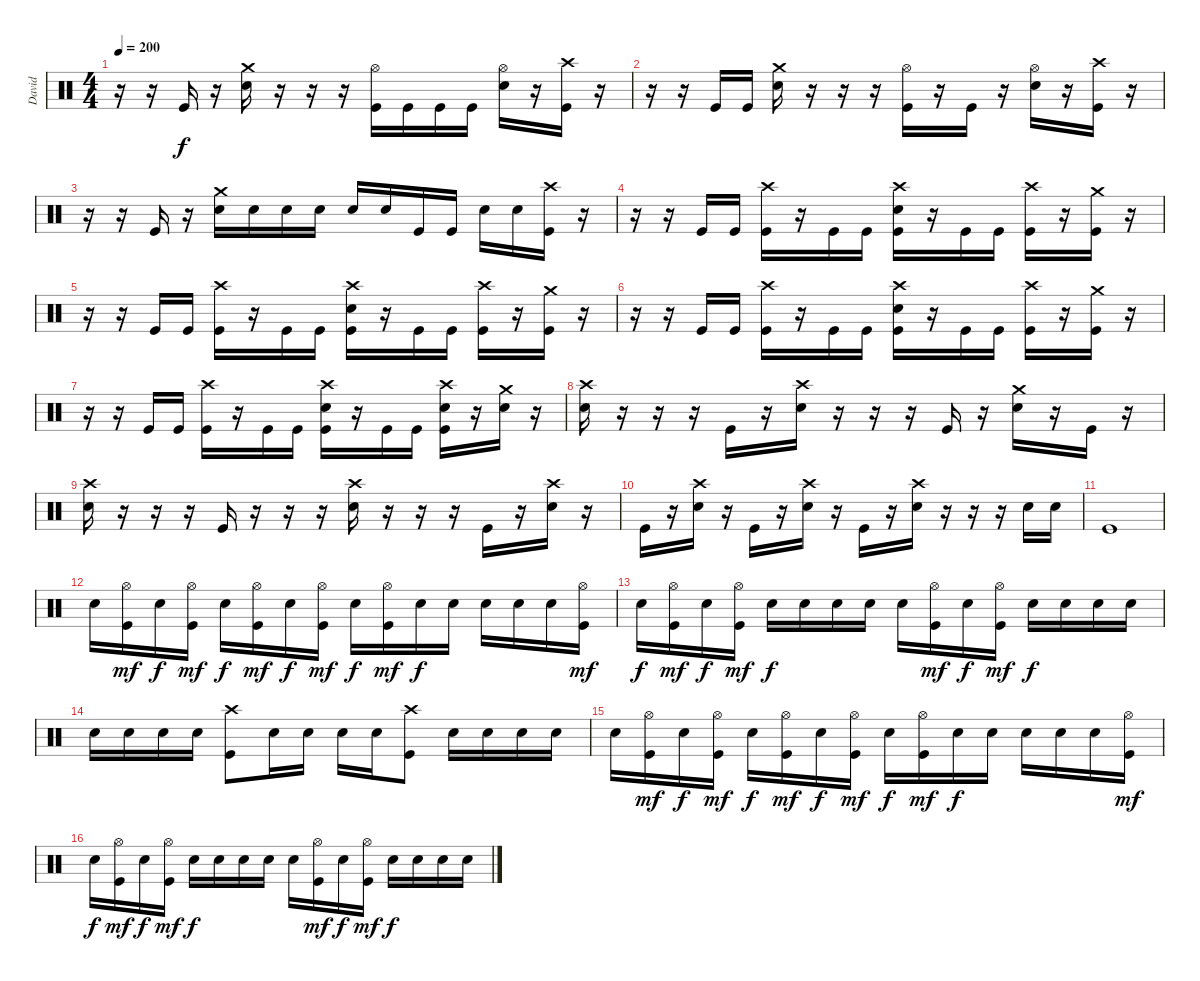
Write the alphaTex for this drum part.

\track ("David" "David") {instrument percussion}
\staff {score}
\articulation defaults
\ts (4 4)
\tempo 200
\clef neutral
\ks c
r.16{dy f} r.16 "Kick (hit)".16 r.16 ("Crash medium (hit)" "Electric Snare (hit)").16 r.16 r.16 r.16 ("Hi-Hat (open)" "Kick (hit)").16 "Kick (hit)".16 "Kick (hit)".16 "Kick (hit)".16 ("Hi-Hat (open)" "Electric Snare (hit)").16 r.16 ("Crash high (hit)" "Kick (hit)").16 r.16 |
r.16 r.16 "Kick (hit)".16 "Kick (hit)".16 ("Crash medium (hit)" "Electric Snare (hit)").16 r.16 r.16 r.16 ("Hi-Hat (open)" "Kick (hit)").16 r.16 "Kick (hit)".16 r.16 ("Hi-Hat (open)" "Electric Snare (hit)").16 r.16 ("Crash high (hit)" "Kick (hit)").16 r.16 |
r.16 r.16 "Kick (hit)".16 r.16 ("Crash medium (hit)" "Electric Snare (hit)").16 "Electric Snare (hit)".16 "Electric Snare (hit)".16 "Electric Snare (hit)".16 "Electric Snare (hit)".16 "Electric Snare (hit)".16 "Kick (hit)".16 "Kick (hit)".16 "Electric Snare (hit)".16 "Electric Snare (hit)".16 ("Crash high (hit)" "Kick (hit)").16 r.16 |
r.16 r.16 "Kick (hit)".16 "Kick (hit)".16 ("Crash high (hit)" "Kick (hit)").16 r.16 "Kick (hit)".16 "Kick (hit)".16 ("Crash high (hit)" "Electric Snare (hit)" "Kick (hit)").16 r.16 "Kick (hit)".16 "Kick (hit)".16 ("Crash high (hit)" "Kick (hit)").16 r.16 ("Crash medium (hit)" "Kick (hit)").16 r.16 |
r.16 r.16 "Kick (hit)".16 "Kick (hit)".16 ("Crash high (hit)" "Kick (hit)").16 r.16 "Kick (hit)".16 "Kick (hit)".16 ("Crash high (hit)" "Electric Snare (hit)" "Kick (hit)").16 r.16 "Kick (hit)".16 "Kick (hit)".16 ("Crash high (hit)" "Kick (hit)").16 r.16 ("Crash medium (hit)" "Kick (hit)").16 r.16 |
r.16 r.16 "Kick (hit)".16 "Kick (hit)".16 ("Crash high (hit)" "Kick (hit)").16 r.16 "Kick (hit)".16 "Kick (hit)".16 ("Crash high (hit)" "Electric Snare (hit)" "Kick (hit)").16 r.16 "Kick (hit)".16 "Kick (hit)".16 ("Crash high (hit)" "Kick (hit)").16 r.16 ("Crash medium (hit)" "Kick (hit)").16 r.16 |
r.16 r.16 "Kick (hit)".16 "Kick (hit)".16 ("Crash high (hit)" "Kick (hit)").16 r.16 "Kick (hit)".16 "Kick (hit)".16 ("Crash high (hit)" "Electric Snare (hit)" "Kick (hit)").16 r.16 "Kick (hit)".16 "Kick (hit)".16 ("Crash high (hit)" "Electric Snare (hit)" "Kick (hit)").16 r.16 ("Crash medium (hit)" "Electric Snare (hit)").16 r.16 |
("Crash high (hit)" "Electric Snare (hit)").16 r.16 r.16 r.16 "Kick (hit)".16 r.16 ("Crash high (hit)" "Electric Snare (hit)").16 r.16 r.16 r.16 "Kick (hit)".16 r.16 ("Crash medium (hit)" "Electric Snare (hit)").16 r.16 "Kick (hit)".16 r.16 |
("Crash high (hit)" "Electric Snare (hit)").16 r.16 r.16 r.16 "Kick (hit)".16 r.16 r.16 r.16 ("Crash high (hit)" "Electric Snare (hit)").16 r.16 r.16 r.16 "Kick (hit)".16 r.16 ("Crash high (hit)" "Electric Snare (hit)").16 r.16 |
"Kick (hit)".16 r.16 ("Crash high (hit)" "Electric Snare (hit)").16 r.16 "Kick (hit)".16 r.16 ("Crash high (hit)" "Electric Snare (hit)").16 r.16 "Kick (hit)".16 r.16 ("Crash high (hit)" "Electric Snare (hit)").16 r.16 r.16 r.16 "Electric Snare (hit)".16 "Electric Snare (hit)".16 |
"Kick (hit)".1 |
"Electric Snare (hit)".16 ("Hi-Hat (open)" "Kick (hit)").16{dy mf} "Electric Snare (hit)".16{dy f} ("Hi-Hat (open)" "Kick (hit)").16{dy mf} "Electric Snare (hit)".16{dy f} ("Hi-Hat (open)" "Kick (hit)").16{dy mf} "Electric Snare (hit)".16{dy f} ("Hi-Hat (open)" "Kick (hit)").16{dy mf} "Electric Snare (hit)".16{dy f} ("Hi-Hat (open)" "Kick (hit)").16{dy mf} "Electric Snare (hit)".16{dy f} "Electric Snare (hit)".16 "Electric Snare (hit)".16 "Electric Snare (hit)".16 "Electric Snare (hit)".16 ("Hi-Hat (open)" "Kick (hit)").16{dy mf} |
"Electric Snare (hit)".16{dy f} ("Hi-Hat (open)" "Kick (hit)").16{dy mf} "Electric Snare (hit)".16{dy f} ("Hi-Hat (open)" "Kick (hit)").16{dy mf} "Electric Snare (hit)".16{dy f} "Electric Snare (hit)".16 "Electric Snare (hit)".16 "Electric Snare (hit)".16 "Electric Snare (hit)".16 ("Hi-Hat (open)" "Kick (hit)").16{dy mf} "Electric Snare (hit)".16{dy f} ("Hi-Hat (open)" "Kick (hit)").16{dy mf} "Electric Snare (hit)".16{dy f} "Electric Snare (hit)".16 "Electric Snare (hit)".16 "Electric Snare (hit)".16 |
"Electric Snare (hit)".16 "Electric Snare (hit)".16 "Electric Snare (hit)".16 "Electric Snare (hit)".16 ("Crash high (hit)" "Kick (hit)").8 "Electric Snare (hit)".16 "Electric Snare (hit)".16 "Electric Snare (hit)".16 "Electric Snare (hit)".16 ("Crash high (hit)" "Kick (hit)").8 "Electric Snare (hit)".16 "Electric Snare (hit)".16 "Electric Snare (hit)".16 "Electric Snare (hit)".16 |
"Electric Snare (hit)".16 ("Hi-Hat (open)" "Kick (hit)").16{dy mf} "Electric Snare (hit)".16{dy f} ("Hi-Hat (open)" "Kick (hit)").16{dy mf} "Electric Snare (hit)".16{dy f} ("Hi-Hat (open)" "Kick (hit)").16{dy mf} "Electric Snare (hit)".16{dy f} ("Hi-Hat (open)" "Kick (hit)").16{dy mf} "Electric Snare (hit)".16{dy f} ("Hi-Hat (open)" "Kick (hit)").16{dy mf} "Electric Snare (hit)".16{dy f} "Electric Snare (hit)".16 "Electric Snare (hit)".16 "Electric Snare (hit)".16 "Electric Snare (hit)".16 ("Hi-Hat (open)" "Kick (hit)").16{dy mf} |
"Electric Snare (hit)".16{dy f} ("Hi-Hat (open)" "Kick (hit)").16{dy mf} "Electric Snare (hit)".16{dy f} ("Hi-Hat (open)" "Kick (hit)").16{dy mf} "Electric Snare (hit)".16{dy f} "Electric Snare (hit)".16 "Electric Snare (hit)".16 "Electric Snare (hit)".16 "Electric Snare (hit)".16 ("Hi-Hat (open)" "Kick (hit)").16{dy mf} "Electric Snare (hit)".16{dy f} ("Hi-Hat (open)" "Kick (hit)").16{dy mf} "Electric Snare (hit)".16{dy f} "Electric Snare (hit)".16 "Electric Snare (hit)".16 "Electric Snare (hit)".16
